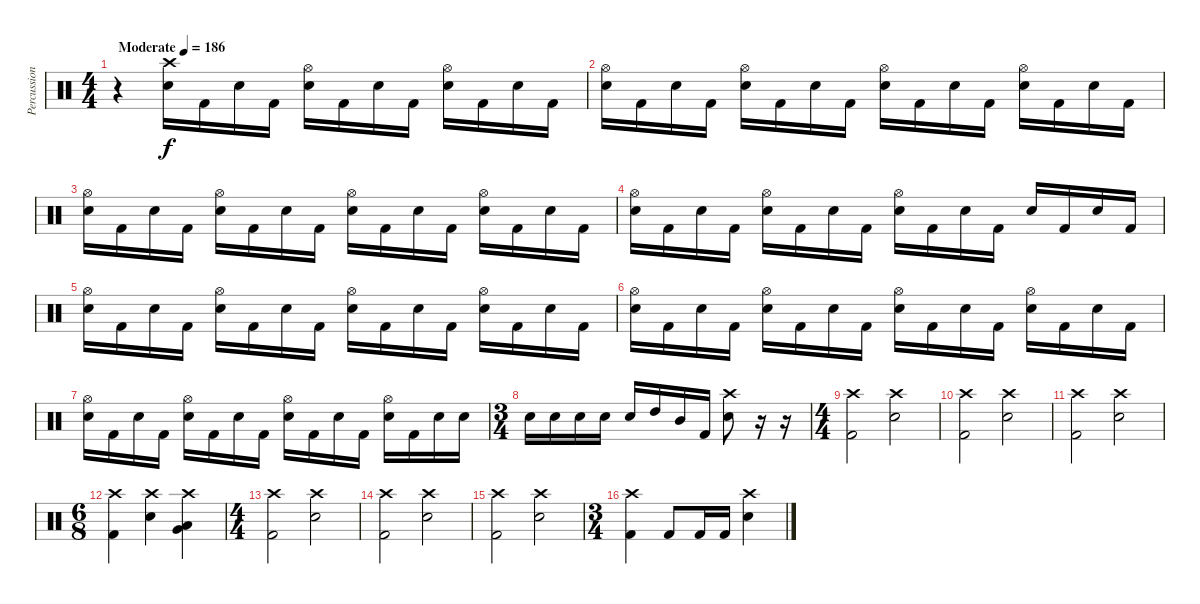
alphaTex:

\track ("Percussion" "Percussion") {instrument percussion}
\staff {score}
\articulation defaults
\ts (4 4)
\tempo (186 "Moderate")
\clef neutral
\ks c
r.4{dy f} ("Crash high (hit)" "Electric Snare (hit)").16 "Kick (hit) 2".16 "Electric Snare (hit)".16 "Kick (hit) 2".16 ("Hi-Hat (open)" "Electric Snare (hit)").16 "Kick (hit) 2".16 "Electric Snare (hit)".16 "Kick (hit) 2".16 ("Hi-Hat (open)" "Electric Snare (hit)").16 "Kick (hit) 2".16 "Electric Snare (hit)".16 "Kick (hit) 2".16 |
("Hi-Hat (open)" "Electric Snare (hit)").16 "Kick (hit) 2".16 "Electric Snare (hit)".16 "Kick (hit) 2".16 ("Hi-Hat (open)" "Electric Snare (hit)").16 "Kick (hit) 2".16 "Electric Snare (hit)".16 "Kick (hit) 2".16 ("Hi-Hat (open)" "Electric Snare (hit)").16 "Kick (hit) 2".16 "Electric Snare (hit)".16 "Kick (hit) 2".16 ("Hi-Hat (open)" "Electric Snare (hit)").16 "Kick (hit) 2".16 "Electric Snare (hit)".16 "Kick (hit) 2".16 |
("Hi-Hat (open)" "Electric Snare (hit)").16 "Kick (hit) 2".16 "Electric Snare (hit)".16 "Kick (hit) 2".16 ("Hi-Hat (open)" "Electric Snare (hit)").16 "Kick (hit) 2".16 "Electric Snare (hit)".16 "Kick (hit) 2".16 ("Hi-Hat (open)" "Electric Snare (hit)").16 "Kick (hit) 2".16 "Electric Snare (hit)".16 "Kick (hit) 2".16 ("Hi-Hat (open)" "Electric Snare (hit)").16 "Kick (hit) 2".16 "Electric Snare (hit)".16 "Kick (hit) 2".16 |
("Hi-Hat (open)" "Electric Snare (hit)").16 "Kick (hit) 2".16 "Electric Snare (hit)".16 "Kick (hit) 2".16 ("Hi-Hat (open)" "Electric Snare (hit)").16 "Kick (hit) 2".16 "Electric Snare (hit)".16 "Kick (hit) 2".16 ("Hi-Hat (open)" "Electric Snare (hit)").16 "Kick (hit) 2".16 "Electric Snare (hit)".16 "Kick (hit) 2".16 "Electric Snare (hit)".16 "Kick (hit) 2".16 "Electric Snare (hit)".16 "Kick (hit) 2".16 |
("Hi-Hat (open)" "Electric Snare (hit)").16 "Kick (hit) 2".16 "Electric Snare (hit)".16 "Kick (hit) 2".16 ("Hi-Hat (open)" "Electric Snare (hit)").16 "Kick (hit) 2".16 "Electric Snare (hit)".16 "Kick (hit) 2".16 ("Hi-Hat (open)" "Electric Snare (hit)").16 "Kick (hit) 2".16 "Electric Snare (hit)".16 "Kick (hit) 2".16 ("Hi-Hat (open)" "Electric Snare (hit)").16 "Kick (hit) 2".16 "Electric Snare (hit)".16 "Kick (hit) 2".16 |
("Hi-Hat (open)" "Electric Snare (hit)").16 "Kick (hit) 2".16 "Electric Snare (hit)".16 "Kick (hit) 2".16 ("Hi-Hat (open)" "Electric Snare (hit)").16 "Kick (hit) 2".16 "Electric Snare (hit)".16 "Kick (hit) 2".16 ("Hi-Hat (open)" "Electric Snare (hit)").16 "Kick (hit) 2".16 "Electric Snare (hit)".16 "Kick (hit) 2".16 ("Hi-Hat (open)" "Electric Snare (hit)").16 "Kick (hit) 2".16 "Electric Snare (hit)".16 "Kick (hit) 2".16 |
("Hi-Hat (open)" "Electric Snare (hit)").16 "Kick (hit) 2".16 "Electric Snare (hit)".16 "Kick (hit) 2".16 ("Hi-Hat (open)" "Electric Snare (hit)").16 "Kick (hit) 2".16 "Electric Snare (hit)".16 "Kick (hit) 2".16 ("Hi-Hat (open)" "Electric Snare (hit)").16 "Kick (hit) 2".16 "Electric Snare (hit)".16 "Kick (hit) 2".16 ("Hi-Hat (open)" "Electric Snare (hit)").16 "Kick (hit) 2".16 "Electric Snare (hit)".16 "Electric Snare (hit)".16 |
\ts (3 4)
"Electric Snare (hit)".16 "Electric Snare (hit)".16 "Electric Snare (hit)".16 "Electric Snare (hit)".16 "Electric Snare (hit)".16 "High Tom (hit)".16 "Mid Tom (hit)".16 "Kick (hit) 2".16 ("Crash high (hit)" "Electric Snare (hit)").8 r.16 r.16 |
\ts (4 4)
("Crash high (hit)" "Kick (hit) 2").2 ("Crash high (hit)" "Electric Snare (hit)").2 |
("Crash high (hit)" "Kick (hit) 2").2 ("Crash high (hit)" "Electric Snare (hit)").2 |
("Crash high (hit)" "Kick (hit) 2").2 ("Crash high (hit)" "Electric Snare (hit)").2 |
\ts (6 8)
("Crash high (hit)" "Kick (hit) 2").4 ("Crash high (hit)" "Electric Snare (hit)").4 ("Crash high (hit)" "Very Low Tom (hit)" "Low Tom (hit)").4 |
\ts (4 4)
("Crash high (hit)" "Kick (hit) 2").2 ("Crash high (hit)" "Electric Snare (hit)").2 |
("Crash high (hit)" "Kick (hit) 2").2 ("Crash high (hit)" "Electric Snare (hit)").2 |
("Crash high (hit)" "Kick (hit) 2").2 ("Crash high (hit)" "Electric Snare (hit)").2 |
\ts (3 4)
("Crash high (hit)" "Kick (hit) 2").4 "Kick (hit) 2".8 "Kick (hit) 2".16 "Kick (hit) 2".16 ("Crash high (hit)" "Electric Snare (hit)").4
